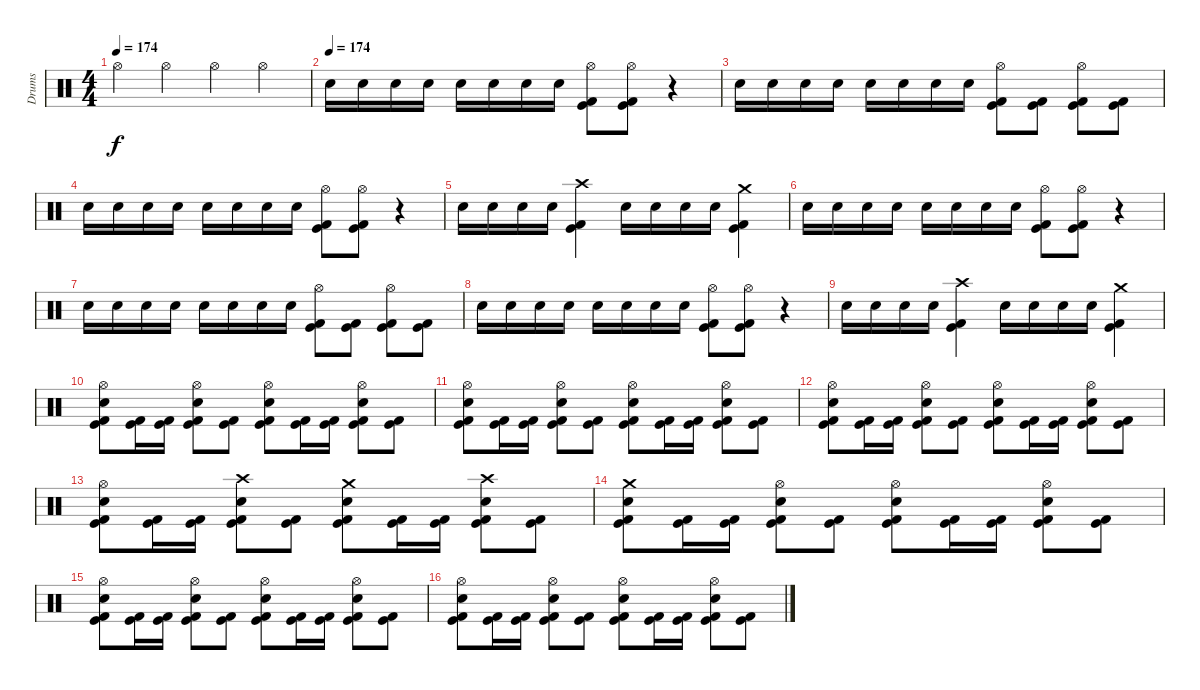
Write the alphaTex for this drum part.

\track ("Drums" "Drums") {instrument percussion}
\staff {score}
\articulation defaults
\ts (4 4)
\tempo 174
\tempo 150
\tempo 174
\clef neutral
\ks c "Hi-Hat (open)".4{dy f} "Hi-Hat (open)".4 "Hi-Hat (open)".4 "Hi-Hat (open)".4
|
\tempo (174)
"Electric Snare (hit)".16 "Electric Snare (hit)".16 "Electric Snare (hit)".16 "Electric Snare (hit)".16 "Electric Snare (hit)".16 "Electric Snare (hit)".16 "Electric Snare (hit)".16 "Electric Snare (hit)".16 ("Kick (hit)" "Kick (hit) 2" "Hi-Hat (open)").8 ("Kick (hit)" "Kick (hit) 2" "Hi-Hat (open)").8 r.4 |
"Electric Snare (hit)".16 "Electric Snare (hit)".16 "Electric Snare (hit)".16 "Electric Snare (hit)".16 "Electric Snare (hit)".16 "Electric Snare (hit)".16 "Electric Snare (hit)".16 "Electric Snare (hit)".16 ("Kick (hit)" "Kick (hit) 2" "Hi-Hat (open)").8 ("Kick (hit)" "Kick (hit) 2").8 ("Kick (hit)" "Kick (hit) 2" "Hi-Hat (open)").8 ("Kick (hit)" "Kick (hit) 2").8 |
"Electric Snare (hit)".16 "Electric Snare (hit)".16 "Electric Snare (hit)".16 "Electric Snare (hit)".16 "Electric Snare (hit)".16 "Electric Snare (hit)".16 "Electric Snare (hit)".16 "Electric Snare (hit)".16 ("Kick (hit)" "Kick (hit) 2" "Hi-Hat (open)").8 ("Kick (hit)" "Kick (hit) 2" "Hi-Hat (open)").8 r.4 |
"Electric Snare (hit)".16 "Electric Snare (hit)".16 "Electric Snare (hit)".16 "Electric Snare (hit)".16 ("Kick (hit)" "Kick (hit) 2" "Crash high (hit)").4 "Electric Snare (hit)".16 "Electric Snare (hit)".16 "Electric Snare (hit)".16 "Electric Snare (hit)".16 ("Kick (hit)" "Kick (hit) 2" "Crash medium (hit)").4 |
"Electric Snare (hit)".16 "Electric Snare (hit)".16 "Electric Snare (hit)".16 "Electric Snare (hit)".16 "Electric Snare (hit)".16 "Electric Snare (hit)".16 "Electric Snare (hit)".16 "Electric Snare (hit)".16 ("Kick (hit)" "Kick (hit) 2" "Hi-Hat (open)").8 ("Kick (hit)" "Kick (hit) 2" "Hi-Hat (open)").8 r.4 |
"Electric Snare (hit)".16 "Electric Snare (hit)".16 "Electric Snare (hit)".16 "Electric Snare (hit)".16 "Electric Snare (hit)".16 "Electric Snare (hit)".16 "Electric Snare (hit)".16 "Electric Snare (hit)".16 ("Kick (hit)" "Kick (hit) 2" "Hi-Hat (open)").8 ("Kick (hit)" "Kick (hit) 2").8 ("Kick (hit)" "Kick (hit) 2" "Hi-Hat (open)").8 ("Kick (hit)" "Kick (hit) 2").8 |
"Electric Snare (hit)".16 "Electric Snare (hit)".16 "Electric Snare (hit)".16 "Electric Snare (hit)".16 "Electric Snare (hit)".16 "Electric Snare (hit)".16 "Electric Snare (hit)".16 "Electric Snare (hit)".16 ("Kick (hit)" "Kick (hit) 2" "Hi-Hat (open)").8 ("Kick (hit)" "Kick (hit) 2" "Hi-Hat (open)").8 r.4 |
"Electric Snare (hit)".16 "Electric Snare (hit)".16 "Electric Snare (hit)".16 "Electric Snare (hit)".16 ("Kick (hit)" "Kick (hit) 2" "Crash high (hit)").4 "Electric Snare (hit)".16 "Electric Snare (hit)".16 "Electric Snare (hit)".16 "Electric Snare (hit)".16 ("Kick (hit)" "Kick (hit) 2" "Crash medium (hit)").4 |
("Kick (hit)" "Kick (hit) 2" "Electric Snare (hit)" "Hi-Hat (open)").8 ("Kick (hit)" "Kick (hit) 2").16 ("Kick (hit)" "Kick (hit) 2").16 ("Kick (hit)" "Kick (hit) 2" "Electric Snare (hit)" "Hi-Hat (open)").8 ("Kick (hit)" "Kick (hit) 2").8 ("Kick (hit)" "Kick (hit) 2" "Electric Snare (hit)" "Hi-Hat (open)").8 ("Kick (hit)" "Kick (hit) 2").16 ("Kick (hit)" "Kick (hit) 2").16 ("Kick (hit)" "Kick (hit) 2" "Electric Snare (hit)" "Hi-Hat (open)").8 ("Kick (hit)" "Kick (hit) 2").8 |
("Kick (hit)" "Kick (hit) 2" "Electric Snare (hit)" "Hi-Hat (open)").8 ("Kick (hit)" "Kick (hit) 2").16 ("Kick (hit)" "Kick (hit) 2").16 ("Kick (hit)" "Kick (hit) 2" "Electric Snare (hit)" "Hi-Hat (open)").8 ("Kick (hit)" "Kick (hit) 2").8 ("Kick (hit)" "Kick (hit) 2" "Electric Snare (hit)" "Hi-Hat (open)").8 ("Kick (hit)" "Kick (hit) 2").16 ("Kick (hit)" "Kick (hit) 2").16 ("Kick (hit)" "Kick (hit) 2" "Electric Snare (hit)" "Hi-Hat (open)").8 ("Kick (hit)" "Kick (hit) 2").8 |
("Kick (hit)" "Kick (hit) 2" "Electric Snare (hit)" "Hi-Hat (open)").8 ("Kick (hit)" "Kick (hit) 2").16 ("Kick (hit)" "Kick (hit) 2").16 ("Kick (hit)" "Kick (hit) 2" "Electric Snare (hit)" "Hi-Hat (open)").8 ("Kick (hit)" "Kick (hit) 2").8 ("Kick (hit)" "Kick (hit) 2" "Electric Snare (hit)" "Hi-Hat (open)").8 ("Kick (hit)" "Kick (hit) 2").16 ("Kick (hit)" "Kick (hit) 2").16 ("Kick (hit)" "Kick (hit) 2" "Electric Snare (hit)" "Hi-Hat (open)").8 ("Kick (hit)" "Kick (hit) 2").8 |
("Kick (hit)" "Kick (hit) 2" "Electric Snare (hit)" "Hi-Hat (open)").8 ("Kick (hit)" "Kick (hit) 2").16 ("Kick (hit)" "Kick (hit) 2").16 ("Kick (hit)" "Kick (hit) 2" "Electric Snare (hit)" "Crash high (hit)").8 ("Kick (hit)" "Kick (hit) 2").8 ("Kick (hit)" "Kick (hit) 2" "Electric Snare (hit)" "Crash medium (hit)").8 ("Kick (hit)" "Kick (hit) 2").16 ("Kick (hit)" "Kick (hit) 2").16 ("Kick (hit)" "Kick (hit) 2" "Electric Snare (hit)" "Crash high (hit)").8 ("Kick (hit)" "Kick (hit) 2").8 |
("Kick (hit)" "Kick (hit) 2" "Electric Snare (hit)" "Crash medium (hit)").8 ("Kick (hit)" "Kick (hit) 2").16 ("Kick (hit)" "Kick (hit) 2").16 ("Kick (hit)" "Kick (hit) 2" "Electric Snare (hit)" "Hi-Hat (open)").8 ("Kick (hit)" "Kick (hit) 2").8 ("Kick (hit)" "Kick (hit) 2" "Electric Snare (hit)" "Hi-Hat (open)").8 ("Kick (hit)" "Kick (hit) 2").16 ("Kick (hit)" "Kick (hit) 2").16 ("Kick (hit)" "Kick (hit) 2" "Electric Snare (hit)" "Hi-Hat (open)").8 ("Kick (hit)" "Kick (hit) 2").8 |
("Kick (hit)" "Kick (hit) 2" "Electric Snare (hit)" "Hi-Hat (open)").8 ("Kick (hit)" "Kick (hit) 2").16 ("Kick (hit)" "Kick (hit) 2").16 ("Kick (hit)" "Kick (hit) 2" "Electric Snare (hit)" "Hi-Hat (open)").8 ("Kick (hit)" "Kick (hit) 2").8 ("Kick (hit)" "Kick (hit) 2" "Electric Snare (hit)" "Hi-Hat (open)").8 ("Kick (hit)" "Kick (hit) 2").16 ("Kick (hit)" "Kick (hit) 2").16 ("Kick (hit)" "Kick (hit) 2" "Electric Snare (hit)" "Hi-Hat (open)").8 ("Kick (hit)" "Kick (hit) 2").8 |
("Kick (hit)" "Kick (hit) 2" "Electric Snare (hit)" "Hi-Hat (open)").8 ("Kick (hit)" "Kick (hit) 2").16 ("Kick (hit)" "Kick (hit) 2").16 ("Kick (hit)" "Kick (hit) 2" "Electric Snare (hit)" "Hi-Hat (open)").8 ("Kick (hit)" "Kick (hit) 2").8 ("Kick (hit)" "Kick (hit) 2" "Electric Snare (hit)" "Hi-Hat (open)").8 ("Kick (hit)" "Kick (hit) 2").16 ("Kick (hit)" "Kick (hit) 2").16 ("Kick (hit)" "Kick (hit) 2" "Electric Snare (hit)" "Hi-Hat (open)").8 ("Kick (hit)" "Kick (hit) 2").8
